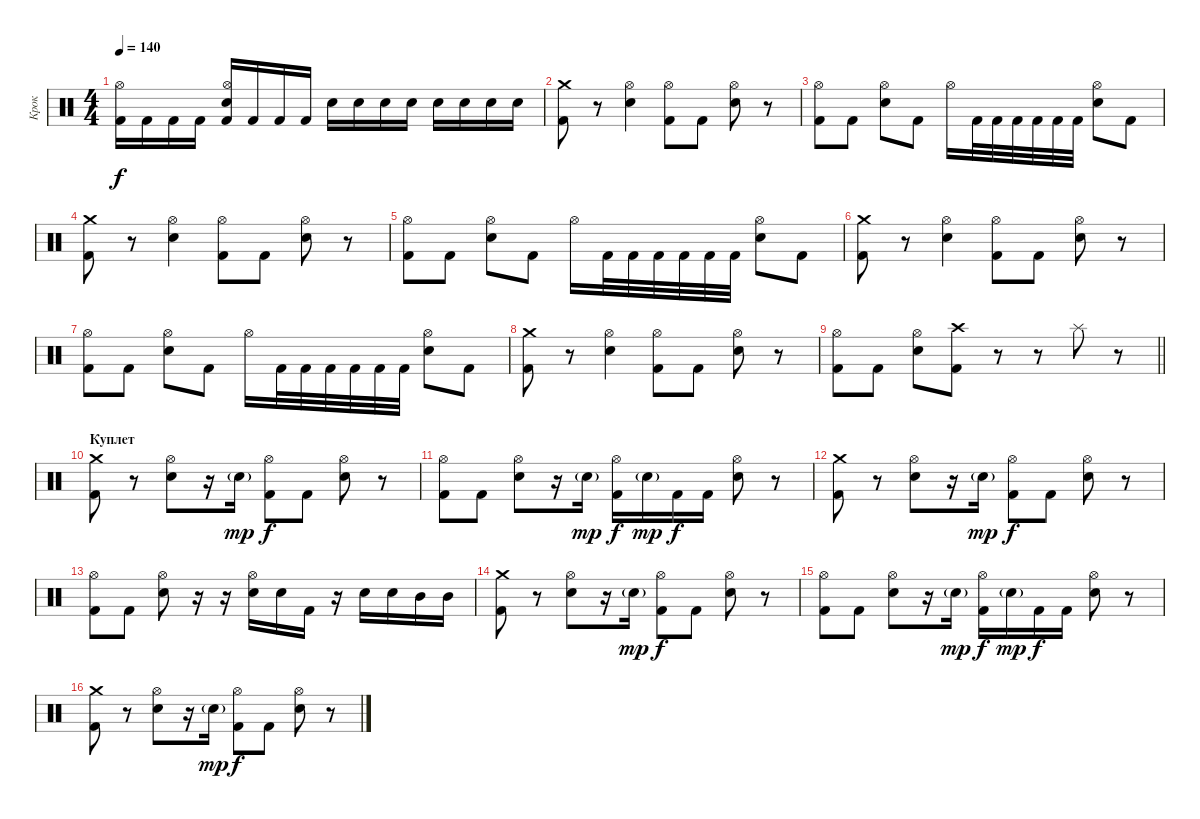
\track ("Крок" "Крок") {instrument percussion}
\staff {score}
\articulation defaults
\ts (4 4)
\tempo 140
\clef neutral
\ks c
("Kick (hit) 2" "Hi-Hat (open)").16{dy f} "Kick (hit) 2".16 "Kick (hit) 2".16 "Kick (hit) 2".16 ("Kick (hit) 2" "Electric Snare (hit)" "Hi-Hat (open)").16 "Kick (hit) 2".16 "Kick (hit) 2".16 "Kick (hit) 2".16 "Electric Snare (hit)".16 "Electric Snare (hit)".16 "Electric Snare (hit)".16 "Electric Snare (hit)".16 "Electric Snare (hit)".16 "Electric Snare (hit)".16 "Electric Snare (hit)".16 "Electric Snare (hit)".16 |
("Kick (hit) 2" "Crash medium (hit)").8 r.8 ("Electric Snare (hit)" "Hi-Hat (open)").4 ("Kick (hit) 2" "Hi-Hat (open)").8 "Kick (hit) 2".8 ("Electric Snare (hit)" "Hi-Hat (open)").8 r.8 |
("Kick (hit) 2" "Hi-Hat (open)").8 "Kick (hit) 2".8 ("Electric Snare (hit)" "Hi-Hat (open)").8 "Kick (hit) 2".8 "Hi-Hat (open)".16 "Kick (hit) 2".32 "Kick (hit) 2".32 "Kick (hit) 2".32 "Kick (hit) 2".32 "Kick (hit) 2".32 "Kick (hit) 2".32 ("Electric Snare (hit)" "Hi-Hat (open)").8 "Kick (hit) 2".8 |
("Kick (hit) 2" "Crash medium (hit)").8 r.8 ("Electric Snare (hit)" "Hi-Hat (open)").4 ("Kick (hit) 2" "Hi-Hat (open)").8 "Kick (hit) 2".8 ("Electric Snare (hit)" "Hi-Hat (open)").8 r.8 |
("Kick (hit) 2" "Hi-Hat (open)").8 "Kick (hit) 2".8 ("Electric Snare (hit)" "Hi-Hat (open)").8 "Kick (hit) 2".8 "Hi-Hat (open)".16 "Kick (hit) 2".32 "Kick (hit) 2".32 "Kick (hit) 2".32 "Kick (hit) 2".32 "Kick (hit) 2".32 "Kick (hit) 2".32 ("Electric Snare (hit)" "Hi-Hat (open)").8 "Kick (hit) 2".8 |
("Kick (hit) 2" "Crash medium (hit)").8 r.8 ("Electric Snare (hit)" "Hi-Hat (open)").4 ("Kick (hit) 2" "Hi-Hat (open)").8 "Kick (hit) 2".8 ("Electric Snare (hit)" "Hi-Hat (open)").8 r.8 |
("Kick (hit) 2" "Hi-Hat (open)").8 "Kick (hit) 2".8 ("Electric Snare (hit)" "Hi-Hat (open)").8 "Kick (hit) 2".8 "Hi-Hat (open)".16 "Kick (hit) 2".32 "Kick (hit) 2".32 "Kick (hit) 2".32 "Kick (hit) 2".32 "Kick (hit) 2".32 "Kick (hit) 2".32 ("Electric Snare (hit)" "Hi-Hat (open)").8 "Kick (hit) 2".8 |
("Kick (hit) 2" "Crash medium (hit)").8 r.8 ("Electric Snare (hit)" "Hi-Hat (open)").4 ("Kick (hit) 2" "Hi-Hat (open)").8 "Kick (hit) 2".8 ("Electric Snare (hit)" "Hi-Hat (open)").8 r.8 |
\barLineRight lightlight
("Kick (hit) 2" "Hi-Hat (open)").8 "Kick (hit) 2".8 ("Electric Snare (hit)" "Hi-Hat (open)").8 ("Kick (hit) 2" "Crash high (hit)").8 r.8 r.8 "Splash (hit)".8 r.8 |
\section ("" "Куплет")
("Kick (hit) 2" "Crash medium (hit)").8 r.8 ("Electric Snare (hit)" "Hi-Hat (open)").8 r.16 "Electric Snare (hit)"{g}.16{dy mp} ("Kick (hit) 2" "Hi-Hat (open)").8{dy f} "Kick (hit) 2".8 ("Electric Snare (hit)" "Hi-Hat (open)").8 r.8 |
("Kick (hit) 2" "Hi-Hat (open)").8 "Kick (hit) 2".8 ("Electric Snare (hit)" "Hi-Hat (open)").8 r.16 "Electric Snare (hit)"{g}.16{dy mp} ("Kick (hit) 2" "Hi-Hat (open)").16{dy f} "Electric Snare (hit)"{g}.16{dy mp} "Kick (hit) 2".16{dy f} "Kick (hit) 2".16 ("Electric Snare (hit)" "Hi-Hat (open)").8 r.8 |
("Kick (hit) 2" "Crash medium (hit)").8 r.8 ("Electric Snare (hit)" "Hi-Hat (open)").8 r.16 "Electric Snare (hit)"{g}.16{dy mp} ("Kick (hit) 2" "Hi-Hat (open)").8{dy f} "Kick (hit) 2".8 ("Electric Snare (hit)" "Hi-Hat (open)").8 r.8 |
("Kick (hit) 2" "Hi-Hat (open)").8 "Kick (hit) 2".8 ("Electric Snare (hit)" "Hi-Hat (open)").8 r.16 r.16 ("Electric Snare (hit)" "Hi-Hat (open)").16 "Electric Snare (hit)".16 "Kick (hit) 2".16 r.16 "Electric Snare (hit)".16 "Electric Snare (hit)".16 "Mid Tom (hit)".16 "Mid Tom (hit)".16 |
("Kick (hit) 2" "Crash medium (hit)").8 r.8 ("Electric Snare (hit)" "Hi-Hat (open)").8 r.16 "Electric Snare (hit)"{g}.16{dy mp} ("Kick (hit) 2" "Hi-Hat (open)").8{dy f} "Kick (hit) 2".8 ("Electric Snare (hit)" "Hi-Hat (open)").8 r.8 |
("Kick (hit) 2" "Hi-Hat (open)").8 "Kick (hit) 2".8 ("Electric Snare (hit)" "Hi-Hat (open)").8 r.16 "Electric Snare (hit)"{g}.16{dy mp} ("Kick (hit) 2" "Hi-Hat (open)").16{dy f} "Electric Snare (hit)"{g}.16{dy mp} "Kick (hit) 2".16{dy f} "Kick (hit) 2".16 ("Electric Snare (hit)" "Hi-Hat (open)").8 r.8 |
("Kick (hit) 2" "Crash medium (hit)").8 r.8 ("Electric Snare (hit)" "Hi-Hat (open)").8 r.16 "Electric Snare (hit)"{g}.16{dy mp} ("Kick (hit) 2" "Hi-Hat (open)").8{dy f} "Kick (hit) 2".8 ("Electric Snare (hit)" "Hi-Hat (open)").8 r.8
